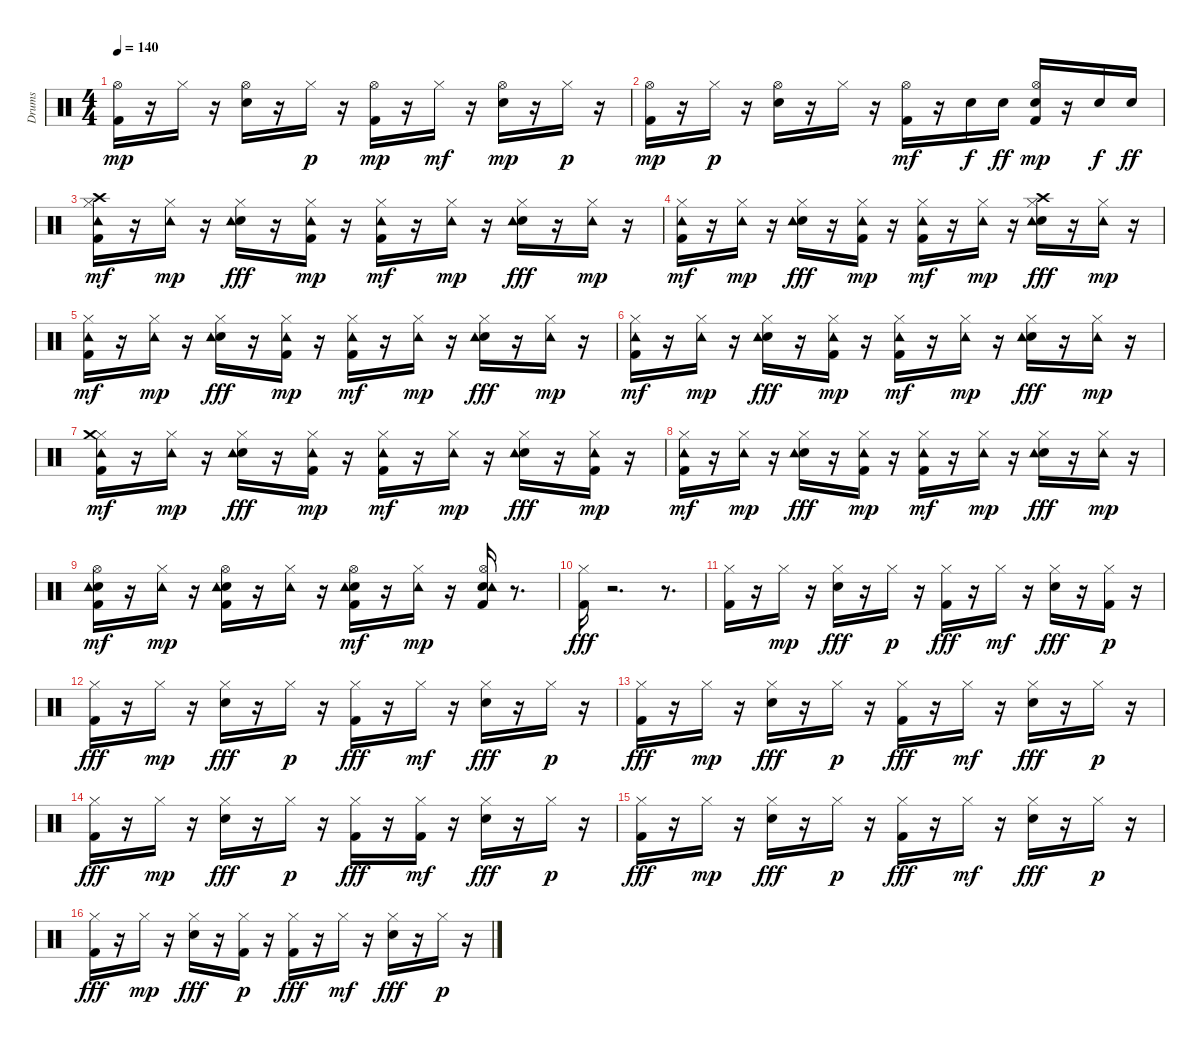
\track ("Drums" "Drums") {instrument percussion}
\staff {score}
\articulation defaults
\ts (4 4)
\tempo 140
\clef neutral
\ks c
("Kick (hit) 2" "Hi-Hat (open)").16{dy mp} r.16 "Hi-Hat (closed)".16 r.16 ("Electric Snare (hit)" "Hi-Hat (open)").16 r.16 "Hi-Hat (closed)".16{dy p} r.16 ("Kick (hit) 2" "Hi-Hat (open)").16{dy mp} r.16 "Hi-Hat (closed)".16{dy mf} r.16 ("Electric Snare (hit)" "Hi-Hat (open)").16{dy mp} r.16 "Hi-Hat (closed)".16{dy p} r.16 |
("Kick (hit) 2" "Hi-Hat (open)").16{dy mp} r.16 "Hi-Hat (closed)".16{dy p} r.16 ("Electric Snare (hit)" "Hi-Hat (open)").16 r.16 "Hi-Hat (closed)".16 r.16 ("Kick (hit) 2" "Hi-Hat (open)").16{dy mf} r.16 "Electric Snare (hit)".16{dy f} "Electric Snare (hit)".16{dy ff} ("Kick (hit) 2" "Electric Snare (hit)" "Hi-Hat (open)").16{dy mp} r.16 "Electric Snare (hit)".16{dy f} "Electric Snare (hit)".16{dy ff} |
("Kick (hit) 2" "Hi-Hat (closed)" "Crash high (hit)" "Tambourine (hit)").16{dy mf} r.16 ("Hi-Hat (closed)" "Tambourine (hit)").16{dy mp} r.16 ("Electric Snare (hit)" "Hi-Hat (closed)" "Tambourine (hit)").16{dy fff} r.16 ("Kick (hit) 2" "Hi-Hat (closed)" "Tambourine (hit)").16{dy mp} r.16 ("Kick (hit) 2" "Hi-Hat (closed)" "Tambourine (hit)").16{dy mf} r.16 ("Hi-Hat (closed)" "Tambourine (hit)").16{dy mp} r.16 ("Electric Snare (hit)" "Hi-Hat (closed)" "Tambourine (hit)").16{dy fff} r.16 ("Hi-Hat (closed)" "Tambourine (hit)").16{dy mp} r.16 |
("Kick (hit) 2" "Hi-Hat (closed)" "Tambourine (hit)").16{dy mf} r.16 ("Hi-Hat (closed)" "Tambourine (hit)").16{dy mp} r.16 ("Electric Snare (hit)" "Hi-Hat (closed)" "Tambourine (hit)").16{dy fff} r.16 ("Kick (hit) 2" "Hi-Hat (closed)" "Tambourine (hit)").16{dy mp} r.16 ("Kick (hit) 2" "Hi-Hat (closed)" "Tambourine (hit)").16{dy mf} r.16 ("Hi-Hat (closed)" "Tambourine (hit)").16{dy mp} r.16 ("Electric Snare (hit)" "Hi-Hat (closed)" "Crash high (hit)" "Tambourine (hit)").16{dy fff} r.16 ("Hi-Hat (closed)" "Tambourine (hit)").16{dy mp} r.16 |
("Kick (hit) 2" "Hi-Hat (closed)" "Tambourine (hit)").16{dy mf} r.16 ("Hi-Hat (closed)" "Tambourine (hit)").16{dy mp} r.16 ("Electric Snare (hit)" "Hi-Hat (closed)" "Tambourine (hit)").16{dy fff} r.16 ("Kick (hit) 2" "Hi-Hat (closed)" "Tambourine (hit)").16{dy mp} r.16 ("Kick (hit) 2" "Hi-Hat (closed)" "Tambourine (hit)").16{dy mf} r.16 ("Hi-Hat (closed)" "Tambourine (hit)").16{dy mp} r.16 ("Electric Snare (hit)" "Hi-Hat (closed)" "Tambourine (hit)").16{dy fff} r.16 ("Hi-Hat (closed)" "Tambourine (hit)").16{dy mp} r.16 |
("Kick (hit) 2" "Hi-Hat (closed)" "Tambourine (hit)").16{dy mf} r.16 ("Hi-Hat (closed)" "Tambourine (hit)").16{dy mp} r.16 ("Electric Snare (hit)" "Hi-Hat (closed)" "Tambourine (hit)").16{dy fff} r.16 ("Kick (hit) 2" "Hi-Hat (closed)" "Tambourine (hit)").16{dy mp} r.16 ("Kick (hit) 2" "Hi-Hat (closed)" "Tambourine (hit)").16{dy mf} r.16 ("Hi-Hat (closed)" "Tambourine (hit)").16{dy mp} r.16 ("Electric Snare (hit)" "Hi-Hat (closed)" "Tambourine (hit)").16{dy fff} r.16 ("Hi-Hat (closed)" "Tambourine (hit)").16{dy mp} r.16 |
("Kick (hit) 2" "Hi-Hat (closed)" "Crash medium (hit)" "Tambourine (hit)").16{dy mf} r.16 ("Hi-Hat (closed)" "Tambourine (hit)").16{dy mp} r.16 ("Electric Snare (hit)" "Hi-Hat (closed)" "Tambourine (hit)").16{dy fff} r.16 ("Kick (hit) 2" "Hi-Hat (closed)" "Tambourine (hit)").16{dy mp} r.16 ("Kick (hit) 2" "Hi-Hat (closed)" "Tambourine (hit)").16{dy mf} r.16 ("Hi-Hat (closed)" "Tambourine (hit)").16{dy mp} r.16 ("Electric Snare (hit)" "Hi-Hat (closed)" "Tambourine (hit)").16{dy fff} r.16 ("Kick (hit) 2" "Hi-Hat (closed)" "Tambourine (hit)").16{dy mp} r.16 |
("Kick (hit) 2" "Hi-Hat (closed)" "Tambourine (hit)").16{dy mf} r.16 ("Hi-Hat (closed)" "Tambourine (hit)").16{dy mp} r.16 ("Electric Snare (hit)" "Hi-Hat (closed)" "Tambourine (hit)").16{dy fff} r.16 ("Kick (hit) 2" "Hi-Hat (closed)" "Tambourine (hit)").16{dy mp} r.16 ("Kick (hit) 2" "Hi-Hat (closed)" "Tambourine (hit)").16{dy mf} r.16 ("Hi-Hat (closed)" "Tambourine (hit)").16{dy mp} r.16 ("Electric Snare (hit)" "Hi-Hat (closed)" "Tambourine (hit)").16{dy fff} r.16 ("Hi-Hat (closed)" "Tambourine (hit)").16{dy mp} r.16 |
("Kick (hit) 2" "Electric Snare (hit)" "Hi-Hat (open)" "Tambourine (hit)").16{dy mf} r.16 ("Hi-Hat (closed)" "Tambourine (hit)").16{dy mp} r.16 ("Kick (hit) 2" "Electric Snare (hit)" "Hi-Hat (open)" "Tambourine (hit)").16 r.16 ("Hi-Hat (closed)" "Tambourine (hit)").16 r.16 ("Kick (hit) 2" "Electric Snare (hit)" "Hi-Hat (open)" "Tambourine (hit)").16{dy mf} r.16 ("Hi-Hat (closed)" "Tambourine (hit)").16{dy mp} r.16 ("Kick (hit) 2" "Electric Snare (hit)" "Hi-Hat (open)" "Tambourine (hit)").16 r.8{d} |
("Kick (hit) 2" "Hi-Hat (closed)").16{dy fff} r.2{d} r.8{d} |
("Kick (hit) 2" "Hi-Hat (closed)").16 r.16 "Hi-Hat (closed)".16{dy mp} r.16 ("Electric Snare (hit)" "Hi-Hat (closed)").16{dy fff} r.16 "Hi-Hat (closed)".16{dy p} r.16 ("Kick (hit) 2" "Hi-Hat (closed)").16{dy fff} r.16 "Hi-Hat (closed)".16{dy mf} r.16 ("Electric Snare (hit)" "Hi-Hat (closed)").16{dy fff} r.16 ("Kick (hit) 2" "Hi-Hat (closed)").16{dy p} r.16 |
("Kick (hit) 2" "Hi-Hat (closed)").16{dy fff} r.16 "Hi-Hat (closed)".16{dy mp} r.16 ("Electric Snare (hit)" "Hi-Hat (closed)").16{dy fff} r.16 "Hi-Hat (closed)".16{dy p} r.16 ("Kick (hit) 2" "Hi-Hat (closed)").16{dy fff} r.16 "Hi-Hat (closed)".16{dy mf} r.16 ("Electric Snare (hit)" "Hi-Hat (closed)").16{dy fff} r.16 "Hi-Hat (closed)".16{dy p} r.16 |
("Kick (hit) 2" "Hi-Hat (closed)").16{dy fff} r.16 "Hi-Hat (closed)".16{dy mp} r.16 ("Electric Snare (hit)" "Hi-Hat (closed)").16{dy fff} r.16 "Hi-Hat (closed)".16{dy p} r.16 ("Kick (hit) 2" "Hi-Hat (closed)").16{dy fff} r.16 "Hi-Hat (closed)".16{dy mf} r.16 ("Electric Snare (hit)" "Hi-Hat (closed)").16{dy fff} r.16 "Hi-Hat (closed)".16{dy p} r.16 |
("Kick (hit) 2" "Hi-Hat (closed)").16{dy fff} r.16 "Hi-Hat (closed)".16{dy mp} r.16 ("Electric Snare (hit)" "Hi-Hat (closed)").16{dy fff} r.16 "Hi-Hat (closed)".16{dy p} r.16 ("Kick (hit) 2" "Hi-Hat (closed)").16{dy fff} r.16 ("Kick (hit) 2" "Hi-Hat (closed)").16{dy mf} r.16 ("Electric Snare (hit)" "Hi-Hat (closed)").16{dy fff} r.16 "Hi-Hat (closed)".16{dy p} r.16 |
("Kick (hit) 2" "Hi-Hat (closed)").16{dy fff} r.16 "Hi-Hat (closed)".16{dy mp} r.16 ("Electric Snare (hit)" "Hi-Hat (closed)").16{dy fff} r.16 "Hi-Hat (closed)".16{dy p} r.16 ("Kick (hit) 2" "Hi-Hat (closed)").16{dy fff} r.16 "Hi-Hat (closed)".16{dy mf} r.16 ("Electric Snare (hit)" "Hi-Hat (closed)").16{dy fff} r.16 "Hi-Hat (closed)".16{dy p} r.16 |
("Kick (hit) 2" "Hi-Hat (closed)").16{dy fff} r.16 "Hi-Hat (closed)".16{dy mp} r.16 ("Electric Snare (hit)" "Hi-Hat (closed)").16{dy fff} r.16 ("Kick (hit) 2" "Hi-Hat (closed)").16{dy p} r.16 ("Kick (hit) 2" "Hi-Hat (closed)").16{dy fff} r.16 "Hi-Hat (closed)".16{dy mf} r.16 ("Electric Snare (hit)" "Hi-Hat (closed)").16{dy fff} r.16 "Hi-Hat (closed)".16{dy p} r.16
